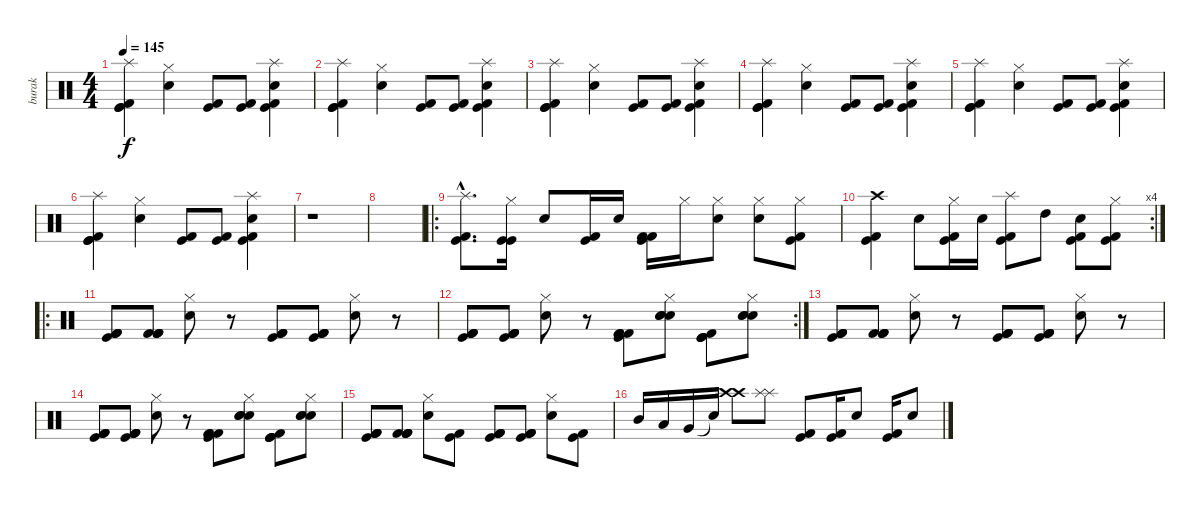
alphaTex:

\track ("burak" "burak") {instrument percussion}
\staff {score}
\articulation defaults
\ts (4 4)
\tempo 145
\clef neutral
\ks c
("Splash (hit)" "Kick (hit)" "Kick (hit)" "Kick (hit) 2").4{dy f} ("Hi-Hat (closed)" "Snare (hit) 2").4 ("Kick (hit)" "Kick (hit) 2").8 ("Kick (hit)" "Kick (hit) 2").8 ("Splash (hit)" "Snare (hit) 2" "Kick (hit)" "Kick (hit) 2").4 |
("Splash (hit)" "Kick (hit)" "Kick (hit)" "Kick (hit) 2").4 ("Hi-Hat (closed)" "Snare (hit) 2").4 ("Kick (hit)" "Kick (hit) 2").8 ("Kick (hit)" "Kick (hit) 2").8 ("Splash (hit)" "Snare (hit) 2" "Kick (hit)" "Kick (hit) 2").4 |
("Splash (hit)" "Kick (hit)" "Kick (hit)" "Kick (hit) 2").4 ("Hi-Hat (closed)" "Snare (hit) 2").4 ("Kick (hit)" "Kick (hit) 2").8 ("Kick (hit)" "Kick (hit) 2").8 ("Splash (hit)" "Snare (hit) 2" "Kick (hit)" "Kick (hit) 2").4 |
("Splash (hit)" "Kick (hit)" "Kick (hit)" "Kick (hit) 2").4 ("Hi-Hat (closed)" "Snare (hit) 2").4 ("Kick (hit)" "Kick (hit) 2").8 ("Kick (hit)" "Kick (hit) 2").8 ("Splash (hit)" "Snare (hit) 2" "Kick (hit)" "Kick (hit) 2").4 |
("Splash (hit)" "Kick (hit)" "Kick (hit)" "Kick (hit) 2").4 ("Hi-Hat (closed)" "Snare (hit) 2").4 ("Kick (hit)" "Kick (hit) 2").8 ("Kick (hit)" "Kick (hit) 2").8 ("Splash (hit)" "Snare (hit) 2" "Kick (hit)" "Kick (hit) 2").4 |
("Splash (hit)" "Kick (hit)" "Kick (hit)" "Kick (hit) 2").4 ("Hi-Hat (closed)" "Snare (hit) 2").4 ("Kick (hit)" "Kick (hit) 2").8 ("Kick (hit)" "Kick (hit) 2").8 ("Splash (hit)" "Snare (hit) 2" "Kick (hit)" "Kick (hit) 2").4 |
r.1 |
|
\ro
("Splash (hit)"{hac} "Kick (hit)"{hac} "Kick (hit) 2"{hac}).8{d} ("Hi-Hat (closed)" "Kick (hit)" "Kick (hit)").16 "Electric Snare (hit)".8 ("Kick (hit)" "Kick (hit) 2").16 "Electric Snare (hit)".16 ("Kick (hit) 2" "Kick (hit)" "Kick (hit) 2").16 "Hi-Hat (closed)".16 ("Hi-Hat (closed)" "Electric Snare (hit)").8 ("Hi-Hat (closed)" "Electric Snare (hit)").8 ("Hi-Hat (closed)" "Kick (hit)" "Kick (hit) 2").8 |
\rc 4
("Crash high (hit)" "Kick (hit)" "Kick (hit) 2").4 "Electric Snare (hit)".8 ("Hi-Hat (closed)" "Kick (hit)" "Kick (hit) 2").16 "Electric Snare (hit)".16 ("Splash (hit)" "Kick (hit)" "Kick (hit) 2").8 "High Tom (hit)".8 ("Electric Snare (hit)" "Kick (hit)" "Kick (hit) 2").8 ("Hi-Hat (closed)" "Kick (hit)" "Kick (hit) 2").8 |
\ro
("Kick (hit) 2" "Kick (hit) 2" "Kick (hit)" "Kick (hit) 2").8 ("Kick (hit) 2" "Kick (hit) 2" "Kick (hit) 2" "Kick (hit) 2").8 ("Snare (hit) 2" "Hi-Hat (closed)").8 r.8 ("Kick (hit) 2" "Kick (hit) 2" "Kick (hit)" "Kick (hit) 2").8 ("Kick (hit) 2" "Kick (hit) 2" "Kick (hit)" "Kick (hit) 2").8 ("Snare (hit) 2" "Hi-Hat (closed)").8 r.8 |
\rc 2
("Kick (hit) 2" "Kick (hit) 2" "Kick (hit)" "Kick (hit) 2").8 ("Kick (hit) 2" "Kick (hit) 2" "Kick (hit)" "Kick (hit) 2").8 ("Snare (hit) 2" "Hi-Hat (closed)").8 r.8 ("Kick (hit) 2" "Kick (hit) 2" "Kick (hit)" "Kick (hit) 2").8 ("Snare (hit) 2" "Snare (hit) 2" "Snare (hit) 2" "Hi-Hat (closed)").8 ("Kick (hit)" "Kick (hit)" "Kick (hit)" "Kick (hit) 2").8 ("Snare (hit) 2" "Snare (hit) 2" "Snare (hit) 2" "Hi-Hat (closed)").8 |
("Kick (hit) 2" "Kick (hit) 2" "Kick (hit)" "Kick (hit) 2").8 ("Kick (hit) 2" "Kick (hit) 2" "Kick (hit) 2" "Kick (hit) 2").8 ("Snare (hit) 2" "Hi-Hat (closed)").8 r.8 ("Kick (hit) 2" "Kick (hit) 2" "Kick (hit)" "Kick (hit) 2").8 ("Kick (hit) 2" "Kick (hit) 2" "Kick (hit)" "Kick (hit) 2").8 ("Snare (hit) 2" "Hi-Hat (closed)").8 r.8 |
("Kick (hit) 2" "Kick (hit) 2" "Kick (hit)" "Kick (hit) 2").8 ("Kick (hit) 2" "Kick (hit) 2" "Kick (hit)" "Kick (hit) 2").8 ("Snare (hit) 2" "Hi-Hat (closed)").8 r.8 ("Kick (hit) 2" "Kick (hit) 2" "Kick (hit)" "Kick (hit) 2").8 ("Snare (hit) 2" "Snare (hit) 2" "Snare (hit) 2" "Hi-Hat (closed)").8 ("Kick (hit)" "Kick (hit)" "Kick (hit)" "Kick (hit) 2").8 ("Snare (hit) 2" "Snare (hit) 2" "Snare (hit) 2" "Hi-Hat (closed)").8 |
("Kick (hit) 2" "Kick (hit) 2" "Kick (hit)" "Kick (hit) 2").8 ("Kick (hit) 2" "Kick (hit) 2" "Kick (hit) 2" "Kick (hit) 2").8 ("Snare (hit) 2" "Hi-Hat (closed)").8 ("Kick (hit)" "Kick (hit) 2").8 ("Kick (hit) 2" "Kick (hit) 2" "Kick (hit)" "Kick (hit) 2").8 ("Kick (hit) 2" "Kick (hit) 2" "Kick (hit)" "Kick (hit) 2").8 ("Snare (hit) 2" "Hi-Hat (closed)").8 ("Kick (hit)" "Kick (hit) 2").8 |
"Mid Tom (hit)".16 "Low Tom (hit)".16 "Very Low Tom (hit)".16 "Snare (hit)"{t}.16 ("Crash high (hit)" "Crash high (hit)").8 ("Splash (hit)" "Splash (hit)").8 ("Kick (hit)" "Kick (hit) 2").8 ("Kick (hit)" "Kick (hit) 2").16 "Snare (hit) 2".8 ("Kick (hit)" "Kick (hit) 2").16 "Snare (hit) 2".8
